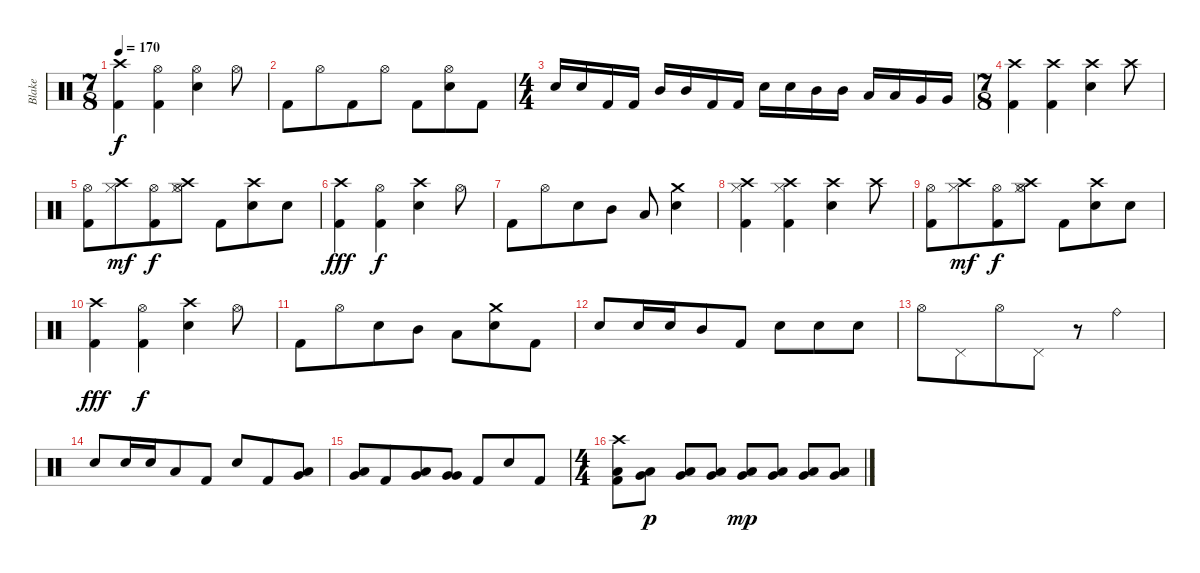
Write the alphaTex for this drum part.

\track ("Blake" "Blake") {instrument percussion}
\staff {score}
\articulation defaults
\ts (7 8)
\tempo 170
\clef neutral
\ks c
("Crash high (hit)" "Kick (hit) 2").4{dy f} ("Hi-Hat (open)" "Kick (hit) 2").4 ("Hi-Hat (open)" "Snare (hit) 2").4 "Hi-Hat (open)".8 |
"Kick (hit) 2".8 "Hi-Hat (open)".8 "Kick (hit) 2".8 "Hi-Hat (open)".8 "Kick (hit) 2".8 ("Hi-Hat (open)" "Snare (hit) 2").8 "Kick (hit) 2".8 |
\ts (4 4)
"Snare (hit) 2".16 "Snare (hit) 2".16 "Kick (hit) 2".16 "Kick (hit) 2".16 "Mid Tom (hit)".16 "Mid Tom (hit)".16 "Kick (hit) 2".16 "Kick (hit) 2".16 "Snare (hit) 2".16 "Snare (hit) 2".16 "Mid Tom (hit)".16 "Mid Tom (hit)".16 "Low Tom (hit)".16 "Low Tom (hit)".16 "Very Low Tom (hit)".16 "Very Low Tom (hit)".16 |
\ts (7 8)
("Crash high (hit)" "Kick (hit) 2").4 ("Crash high (hit)" "Kick (hit) 2").4 ("Crash high (hit)" "Snare (hit) 2").4 "Crash high (hit)".8 |
("Hi-Hat (open)" "Kick (hit) 2").8 ("Crash high (hit)" "Hi-Hat (closed)").8{dy mf} ("Hi-Hat (open)" "Kick (hit) 2").8{dy f} ("Crash high (hit)" "Hi-Hat (open)" "Hi-Hat (closed)").8 "Kick (hit) 2".8 ("Crash high (hit)" "Snare (hit) 2").8 "Snare (hit) 2".8 |
("Crash high (hit)" "Kick (hit) 2").4{dy fff} ("Hi-Hat (open)" "Kick (hit) 2").4{dy f} ("Crash high (hit)" "Snare (hit) 2").4 "Hi-Hat (open)".8 |
"Kick (hit) 2".8 "Hi-Hat (open)".8 "Snare (hit) 2".8 "Mid Tom (hit)".8 "Low Tom (hit)".8 ("Crash medium (hit)" "Snare (hit) 2").4 |
("Crash high (hit)" "Hi-Hat (closed)" "Kick (hit) 2").4 ("Crash high (hit)" "Hi-Hat (closed)" "Kick (hit) 2").4 ("Crash high (hit)" "Snare (hit) 2").4 "Crash high (hit)".8 |
("Hi-Hat (open)" "Kick (hit) 2").8 ("Crash high (hit)" "Hi-Hat (closed)").8{dy mf} ("Hi-Hat (open)" "Kick (hit) 2").8{dy f} ("Crash high (hit)" "Hi-Hat (open)" "Hi-Hat (closed)").8 "Kick (hit) 2".8 ("Crash high (hit)" "Snare (hit) 2").8 "Snare (hit) 2".8 |
("Crash high (hit)" "Kick (hit) 2").4{dy fff} ("Hi-Hat (open)" "Kick (hit) 2").4{dy f} ("Crash high (hit)" "Snare (hit) 2").4 "Hi-Hat (open)".8 |
"Kick (hit) 2".8 "Hi-Hat (open)".8 "Snare (hit) 2".8 "Mid Tom (hit)".8 "Low Tom (hit)".8 ("Crash medium (hit)" "Snare (hit) 2").8 "Kick (hit) 2".8 |
"Snare (hit) 2".8 "Snare (hit) 2".16 "Snare (hit) 2".16 "Mid Tom (hit)".8 "Kick (hit) 2".8 "Snare (hit) 2".8 "Snare (hit) 2".8 "Snare (hit) 2".8 |
"Hi-Hat (open)".8 "Pedal Hi-Hat (hit)".8 "Hi-Hat (open)".8 "Pedal Hi-Hat (hit)".8 r.8 "Ride (bell)".4 |
"Snare (hit) 2".8 "Snare (hit) 2".16 "Snare (hit) 2".16 "Low Tom (hit)".8 "Kick (hit) 2".8 "Snare (hit) 2".8 "Kick (hit) 2".8 ("Very Low Tom (hit)" "Low Tom (hit)").8 |
("Very Low Tom (hit)" "Low Tom (hit)").8 "Kick (hit) 2".8 ("Very Low Tom (hit)" "Low Floor Tom (hit)").8 ("Very Low Tom (hit)" "Very Low Tom (hit)").8 "Kick (hit) 2".8 "Snare (hit) 2".8 "Kick (hit) 2".8 |
\ts (4 4)
("Crash high (hit)" "Low Tom (hit)" "Kick (hit) 2").8 ("Very Low Tom (hit)" "Low Tom (hit)").8{dy p} ("Very Low Tom (hit)" "Low Tom (hit)").8 ("Very Low Tom (hit)" "Low Tom (hit)").8 ("Very Low Tom (hit)" "Low Tom (hit)").8{dy mp} ("Very Low Tom (hit)" "Low Tom (hit)").8 ("Very Low Tom (hit)" "Low Tom (hit)").8 ("Very Low Tom (hit)" "Low Tom (hit)").8
